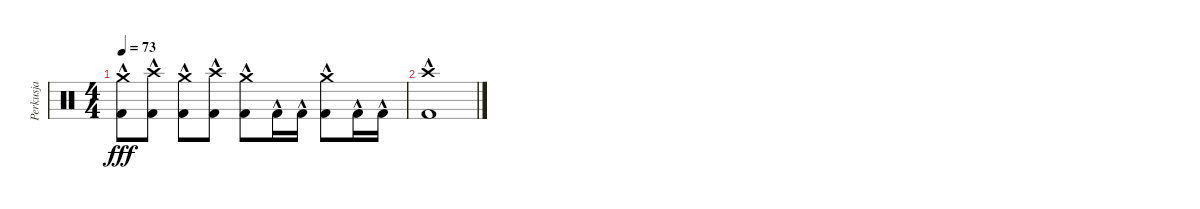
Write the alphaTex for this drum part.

\track ("Perkusja" "Perkusja") {instrument percussion}
\staff {score}
\articulation defaults
\ts (4 4)
\tempo 73
\clef neutral
\ks c
("Crash medium (hit)" "Kick (hit) 2"{hac}).8{dy fff} ("Crash high (hit)" "Kick (hit) 2"{hac}).8 ("Crash medium (hit)" "Kick (hit) 2"{hac}).8 ("Crash high (hit)" "Kick (hit) 2"{hac}).8 ("Crash medium (hit)" "Kick (hit) 2"{hac}).8 "Kick (hit) 2"{hac}.16 "Kick (hit) 2"{hac}.16 ("Crash medium (hit)" "Kick (hit) 2"{hac}).8 "Kick (hit) 2"{hac}.16 "Kick (hit) 2"{hac}.16 |
("Crash high (hit)" "Kick (hit) 2"{hac}).1
